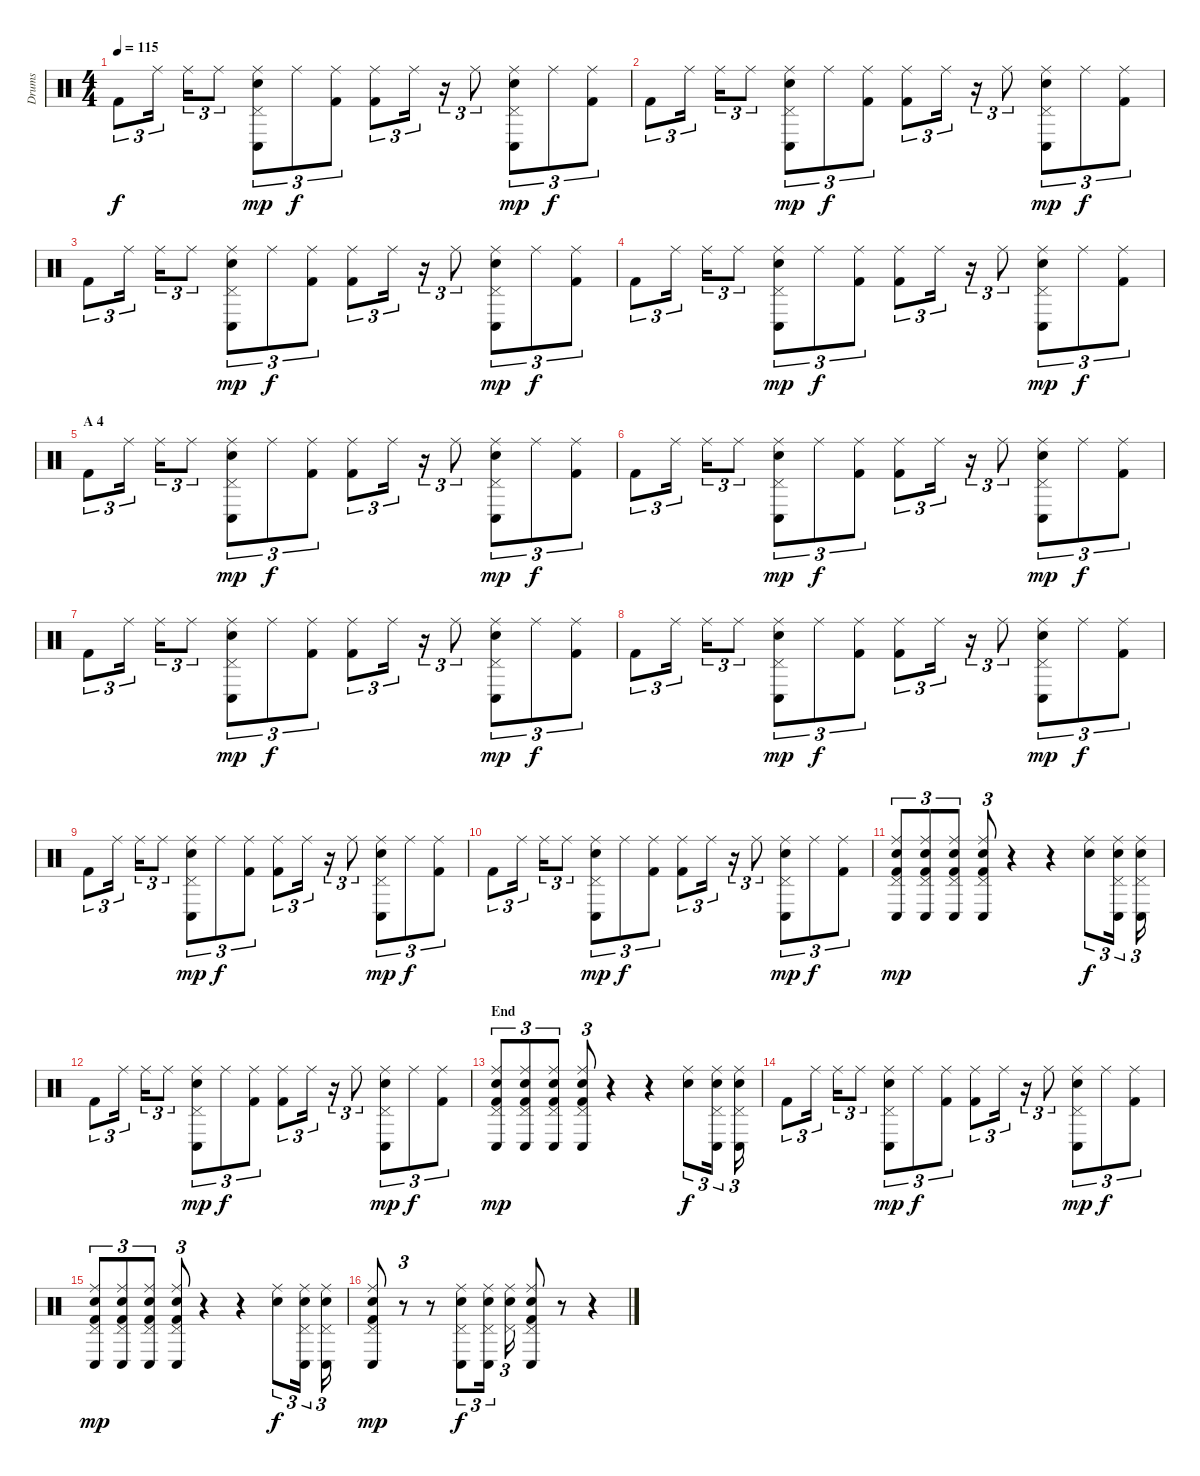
\track ("Drums" "Drums") {instrument percussion}
\staff {score}
\articulation defaults
\ts (4 4)
\tempo 115
\clef neutral
\ks c "Kick (hit) 2".8{tu (3 2) dy f} "Ride (middle)".16{tu (3 2)} "Ride (middle)".16{tu (3 2)} "Ride (middle)".8{tu (3 2)}
("Ride (middle)" "Pedal Hi-Hat (hit)" "Conga low (hit)" "Electric Snare (hit)").8{tu (3 2) dy mp} "Ride (middle)".8{tu (3 2) dy f} ("Ride (middle)" "Kick (hit) 2").8{tu (3 2)} ("Ride (middle)" "Kick (hit) 2").8{tu (3 2)} "Ride (middle)".16{tu (3 2)} r.16{tu (3 2)} "Ride (middle)".8{tu (3 2)} ("Ride (middle)" "Pedal Hi-Hat (hit)" "Conga low (hit)" "Electric Snare (hit)").8{tu (3 2) dy mp} "Ride (middle)".8{tu (3 2) dy f} ("Ride (middle)" "Kick (hit) 2").8{tu (3 2)} |
"Kick (hit) 2".8{tu (3 2)} "Ride (middle)".16{tu (3 2)} "Ride (middle)".16{tu (3 2)} "Ride (middle)".8{tu (3 2)} ("Ride (middle)" "Pedal Hi-Hat (hit)" "Conga low (hit)" "Electric Snare (hit)").8{tu (3 2) dy mp} "Ride (middle)".8{tu (3 2) dy f} ("Ride (middle)" "Kick (hit) 2").8{tu (3 2)} ("Ride (middle)" "Kick (hit) 2").8{tu (3 2)} "Ride (middle)".16{tu (3 2)} r.16{tu (3 2)} "Ride (middle)".8{tu (3 2)} ("Ride (middle)" "Pedal Hi-Hat (hit)" "Conga low (hit)" "Electric Snare (hit)").8{tu (3 2) dy mp} "Ride (middle)".8{tu (3 2) dy f} ("Ride (middle)" "Kick (hit) 2").8{tu (3 2)} |
"Kick (hit) 2".8{tu (3 2)} "Ride (middle)".16{tu (3 2)} "Ride (middle)".16{tu (3 2)} "Ride (middle)".8{tu (3 2)} ("Ride (middle)" "Pedal Hi-Hat (hit)" "Conga low (hit)" "Electric Snare (hit)").8{tu (3 2) dy mp} "Ride (middle)".8{tu (3 2) dy f} ("Ride (middle)" "Kick (hit) 2").8{tu (3 2)} ("Ride (middle)" "Kick (hit) 2").8{tu (3 2)} "Ride (middle)".16{tu (3 2)} r.16{tu (3 2)} "Ride (middle)".8{tu (3 2)} ("Ride (middle)" "Pedal Hi-Hat (hit)" "Conga low (hit)" "Electric Snare (hit)").8{tu (3 2) dy mp} "Ride (middle)".8{tu (3 2) dy f} ("Ride (middle)" "Kick (hit) 2").8{tu (3 2)} |
"Kick (hit) 2".8{tu (3 2)} "Ride (middle)".16{tu (3 2)} "Ride (middle)".16{tu (3 2)} "Ride (middle)".8{tu (3 2)} ("Ride (middle)" "Pedal Hi-Hat (hit)" "Conga low (hit)" "Electric Snare (hit)").8{tu (3 2) dy mp} "Ride (middle)".8{tu (3 2) dy f} ("Ride (middle)" "Kick (hit) 2").8{tu (3 2)} ("Ride (middle)" "Kick (hit) 2").8{tu (3 2)} "Ride (middle)".16{tu (3 2)} r.16{tu (3 2)} "Ride (middle)".8{tu (3 2)} ("Ride (middle)" "Pedal Hi-Hat (hit)" "Conga low (hit)" "Electric Snare (hit)").8{tu (3 2) dy mp} "Ride (middle)".8{tu (3 2) dy f} ("Ride (middle)" "Kick (hit) 2").8{tu (3 2)} |
\section ("" "A 4")
"Kick (hit) 2".8{tu (3 2)} "Ride (middle)".16{tu (3 2)} "Ride (middle)".16{tu (3 2)} "Ride (middle)".8{tu (3 2)} ("Ride (middle)" "Pedal Hi-Hat (hit)" "Conga low (hit)" "Electric Snare (hit)").8{tu (3 2) dy mp} "Ride (middle)".8{tu (3 2) dy f} ("Ride (middle)" "Kick (hit) 2").8{tu (3 2)} ("Ride (middle)" "Kick (hit) 2").8{tu (3 2)} "Ride (middle)".16{tu (3 2)} r.16{tu (3 2)} "Ride (middle)".8{tu (3 2)} ("Ride (middle)" "Pedal Hi-Hat (hit)" "Conga low (hit)" "Electric Snare (hit)").8{tu (3 2) dy mp} "Ride (middle)".8{tu (3 2) dy f} ("Ride (middle)" "Kick (hit) 2").8{tu (3 2)} |
"Kick (hit) 2".8{tu (3 2)} "Ride (middle)".16{tu (3 2)} "Ride (middle)".16{tu (3 2)} "Ride (middle)".8{tu (3 2)} ("Ride (middle)" "Pedal Hi-Hat (hit)" "Conga low (hit)" "Electric Snare (hit)").8{tu (3 2) dy mp} "Ride (middle)".8{tu (3 2) dy f} ("Ride (middle)" "Kick (hit) 2").8{tu (3 2)} ("Ride (middle)" "Kick (hit) 2").8{tu (3 2)} "Ride (middle)".16{tu (3 2)} r.16{tu (3 2)} "Ride (middle)".8{tu (3 2)} ("Ride (middle)" "Pedal Hi-Hat (hit)" "Conga low (hit)" "Electric Snare (hit)").8{tu (3 2) dy mp} "Ride (middle)".8{tu (3 2) dy f} ("Ride (middle)" "Kick (hit) 2").8{tu (3 2)} |
"Kick (hit) 2".8{tu (3 2)} "Ride (middle)".16{tu (3 2)} "Ride (middle)".16{tu (3 2)} "Ride (middle)".8{tu (3 2)} ("Ride (middle)" "Pedal Hi-Hat (hit)" "Conga low (hit)" "Electric Snare (hit)").8{tu (3 2) dy mp} "Ride (middle)".8{tu (3 2) dy f} ("Ride (middle)" "Kick (hit) 2").8{tu (3 2)} ("Ride (middle)" "Kick (hit) 2").8{tu (3 2)} "Ride (middle)".16{tu (3 2)} r.16{tu (3 2)} "Ride (middle)".8{tu (3 2)} ("Ride (middle)" "Pedal Hi-Hat (hit)" "Conga low (hit)" "Electric Snare (hit)").8{tu (3 2) dy mp} "Ride (middle)".8{tu (3 2) dy f} ("Ride (middle)" "Kick (hit) 2").8{tu (3 2)} |
"Kick (hit) 2".8{tu (3 2)} "Ride (middle)".16{tu (3 2)} "Ride (middle)".16{tu (3 2)} "Ride (middle)".8{tu (3 2)} ("Ride (middle)" "Pedal Hi-Hat (hit)" "Conga low (hit)" "Electric Snare (hit)").8{tu (3 2) dy mp} "Ride (middle)".8{tu (3 2) dy f} ("Ride (middle)" "Kick (hit) 2").8{tu (3 2)} ("Ride (middle)" "Kick (hit) 2").8{tu (3 2)} "Ride (middle)".16{tu (3 2)} r.16{tu (3 2)} "Ride (middle)".8{tu (3 2)} ("Ride (middle)" "Pedal Hi-Hat (hit)" "Conga low (hit)" "Electric Snare (hit)").8{tu (3 2) dy mp} "Ride (middle)".8{tu (3 2) dy f} ("Ride (middle)" "Kick (hit) 2").8{tu (3 2)} |
"Kick (hit) 2".8{tu (3 2)} "Ride (middle)".16{tu (3 2)} "Ride (middle)".16{tu (3 2)} "Ride (middle)".8{tu (3 2)} ("Ride (middle)" "Pedal Hi-Hat (hit)" "Conga low (hit)" "Electric Snare (hit)").8{tu (3 2) dy mp} "Ride (middle)".8{tu (3 2) dy f} ("Ride (middle)" "Kick (hit) 2").8{tu (3 2)} ("Ride (middle)" "Kick (hit) 2").8{tu (3 2)} "Ride (middle)".16{tu (3 2)} r.16{tu (3 2)} "Ride (middle)".8{tu (3 2)} ("Ride (middle)" "Pedal Hi-Hat (hit)" "Conga low (hit)" "Electric Snare (hit)").8{tu (3 2) dy mp} "Ride (middle)".8{tu (3 2) dy f} ("Ride (middle)" "Kick (hit) 2").8{tu (3 2)} |
"Kick (hit) 2".8{tu (3 2)} "Ride (middle)".16{tu (3 2)} "Ride (middle)".16{tu (3 2)} "Ride (middle)".8{tu (3 2)} ("Ride (middle)" "Pedal Hi-Hat (hit)" "Conga low (hit)" "Electric Snare (hit)").8{tu (3 2) dy mp} "Ride (middle)".8{tu (3 2) dy f} ("Ride (middle)" "Kick (hit) 2").8{tu (3 2)} ("Ride (middle)" "Kick (hit) 2").8{tu (3 2)} "Ride (middle)".16{tu (3 2)} r.16{tu (3 2)} "Ride (middle)".8{tu (3 2)} ("Ride (middle)" "Pedal Hi-Hat (hit)" "Conga low (hit)" "Electric Snare (hit)").8{tu (3 2) dy mp} "Ride (middle)".8{tu (3 2) dy f} ("Ride (middle)" "Kick (hit) 2").8{tu (3 2)} |
("Ride (middle)" "Pedal Hi-Hat (hit)" "Conga low (hit)" "Electric Snare (hit)" "Kick (hit) 2").8{tu (3 2) dy mp} ("Ride (middle)" "Pedal Hi-Hat (hit)" "Conga low (hit)" "Electric Snare (hit)" "Kick (hit) 2").8{tu (3 2)} ("Ride (middle)" "Pedal Hi-Hat (hit)" "Conga low (hit)" "Electric Snare (hit)" "Kick (hit) 2").8{tu (3 2)} ("Ride (middle)" "Pedal Hi-Hat (hit)" "Conga low (hit)" "Electric Snare (hit)" "Kick (hit) 2").8{tu (3 2)} r.4 r.4 ("Ride (middle)" "Electric Snare (hit)").8{tu (3 2) dy f} ("Ride (middle)" "Pedal Hi-Hat (hit)" "Conga low (hit)" "Electric Snare (hit)").16{tu (3 2)} ("Ride (middle)" "Pedal Hi-Hat (hit)" "Conga low (hit)" "Electric Snare (hit)").16{tu (3 2)} |
"Kick (hit) 2".8{tu (3 2)} "Ride (middle)".16{tu (3 2)} "Ride (middle)".16{tu (3 2)} "Ride (middle)".8{tu (3 2)} ("Ride (middle)" "Pedal Hi-Hat (hit)" "Conga low (hit)" "Electric Snare (hit)").8{tu (3 2) dy mp} "Ride (middle)".8{tu (3 2) dy f} ("Ride (middle)" "Kick (hit) 2").8{tu (3 2)} ("Ride (middle)" "Kick (hit) 2").8{tu (3 2)} "Ride (middle)".16{tu (3 2)} r.16{tu (3 2)} "Ride (middle)".8{tu (3 2)} ("Ride (middle)" "Pedal Hi-Hat (hit)" "Conga low (hit)" "Electric Snare (hit)").8{tu (3 2) dy mp} "Ride (middle)".8{tu (3 2) dy f} ("Ride (middle)" "Kick (hit) 2").8{tu (3 2)} |
\section ("" "End")
("Ride (middle)" "Pedal Hi-Hat (hit)" "Conga low (hit)" "Electric Snare (hit)" "Kick (hit) 2").8{tu (3 2) dy mp} ("Ride (middle)" "Pedal Hi-Hat (hit)" "Conga low (hit)" "Electric Snare (hit)" "Kick (hit) 2").8{tu (3 2)} ("Ride (middle)" "Pedal Hi-Hat (hit)" "Conga low (hit)" "Electric Snare (hit)" "Kick (hit) 2").8{tu (3 2)} ("Ride (middle)" "Pedal Hi-Hat (hit)" "Conga low (hit)" "Electric Snare (hit)" "Kick (hit) 2").8{tu (3 2)} r.4 r.4 ("Ride (middle)" "Electric Snare (hit)").8{tu (3 2) dy f} ("Ride (middle)" "Pedal Hi-Hat (hit)" "Conga low (hit)" "Electric Snare (hit)").16{tu (3 2)} ("Ride (middle)" "Pedal Hi-Hat (hit)" "Conga low (hit)" "Electric Snare (hit)").16{tu (3 2)} |
"Kick (hit) 2".8{tu (3 2)} "Ride (middle)".16{tu (3 2)} "Ride (middle)".16{tu (3 2)} "Ride (middle)".8{tu (3 2)} ("Ride (middle)" "Pedal Hi-Hat (hit)" "Conga low (hit)" "Electric Snare (hit)").8{tu (3 2) dy mp} "Ride (middle)".8{tu (3 2) dy f} ("Ride (middle)" "Kick (hit) 2").8{tu (3 2)} ("Ride (middle)" "Kick (hit) 2").8{tu (3 2)} "Ride (middle)".16{tu (3 2)} r.16{tu (3 2)} "Ride (middle)".8{tu (3 2)} ("Ride (middle)" "Pedal Hi-Hat (hit)" "Conga low (hit)" "Electric Snare (hit)").8{tu (3 2) dy mp} "Ride (middle)".8{tu (3 2) dy f} ("Ride (middle)" "Kick (hit) 2").8{tu (3 2)} |
("Ride (middle)" "Pedal Hi-Hat (hit)" "Conga low (hit)" "Electric Snare (hit)" "Kick (hit) 2").8{tu (3 2) dy mp} ("Ride (middle)" "Pedal Hi-Hat (hit)" "Conga low (hit)" "Electric Snare (hit)" "Kick (hit) 2").8{tu (3 2)} ("Ride (middle)" "Pedal Hi-Hat (hit)" "Conga low (hit)" "Electric Snare (hit)" "Kick (hit) 2").8{tu (3 2)} ("Ride (middle)" "Pedal Hi-Hat (hit)" "Conga low (hit)" "Electric Snare (hit)" "Kick (hit) 2").8{tu (3 2)} r.4 r.4 ("Ride (middle)" "Electric Snare (hit)").8{tu (3 2) dy f} ("Ride (middle)" "Pedal Hi-Hat (hit)" "Conga low (hit)" "Electric Snare (hit)").16{tu (3 2)} ("Ride (middle)" "Pedal Hi-Hat (hit)" "Conga low (hit)" "Electric Snare (hit)").16{tu (3 2)} |
("Ride (middle)" "Pedal Hi-Hat (hit)" "Conga low (hit)" "Electric Snare (hit)" "Kick (hit) 2").8{dy mp} r.8{tu (3 2)} r.8 ("Ride (middle)" "Pedal Hi-Hat (hit)" "Conga low (hit)" "Electric Snare (hit)").8{tu (3 2) dy f} ("Ride (middle)" "Pedal Hi-Hat (hit)" "Conga low (hit)" "Electric Snare (hit)").16{tu (3 2)} ("Ride (middle)" "Pedal Hi-Hat (hit)" "Electric Snare (hit)").16{tu (3 2)} ("Ride (middle)" "Pedal Hi-Hat (hit)" "Conga low (hit)" "Electric Snare (hit)" "Kick (hit) 2").8 r.8 r.4
